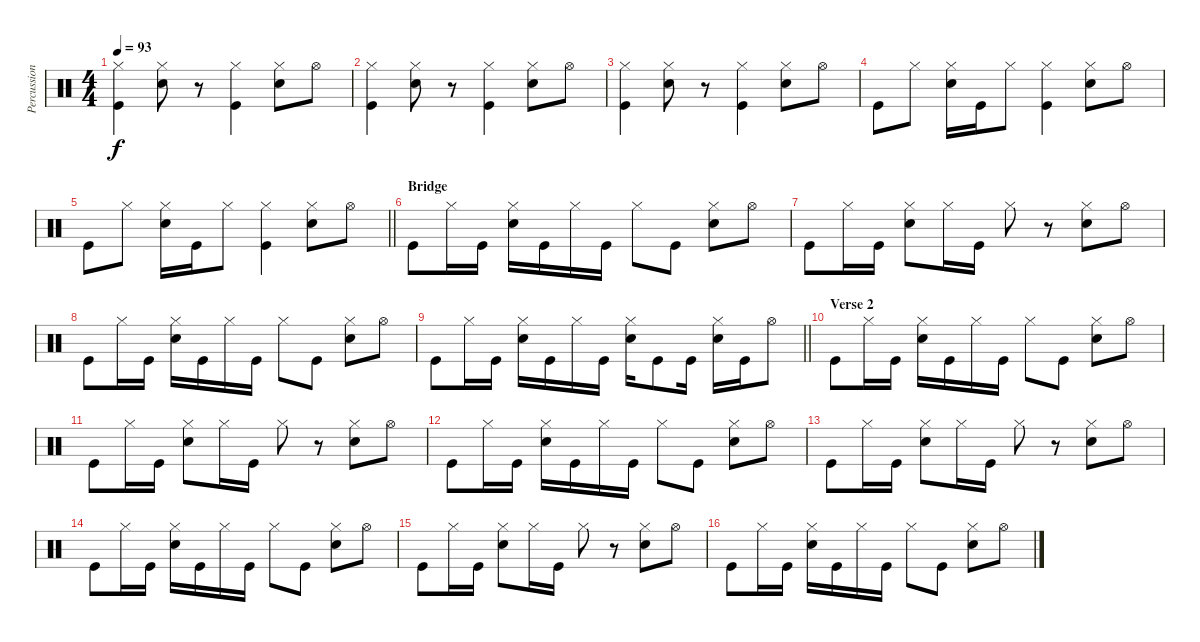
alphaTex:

\track ("Percussion" "Percussion") {instrument percussion}
\staff {score}
\articulation defaults
\ts (4 4)
\tempo 93
\clef neutral
\ks c
("Hi-Hat (closed)" "Kick (hit)").4{dy f} ("Hi-Hat (closed)" "Snare (hit) 2").8 r.8 ("Hi-Hat (closed)" "Kick (hit)").4 ("Hi-Hat (closed)" "Snare (hit) 2").8 "Hi-Hat (open)".8 |
("Hi-Hat (closed)" "Kick (hit)").4 ("Hi-Hat (closed)" "Snare (hit) 2").8 r.8 ("Hi-Hat (closed)" "Kick (hit)").4 ("Hi-Hat (closed)" "Snare (hit) 2").8 "Hi-Hat (open)".8 |
("Hi-Hat (closed)" "Kick (hit)").4 ("Hi-Hat (closed)" "Snare (hit) 2").8 r.8 ("Hi-Hat (closed)" "Kick (hit)").4 ("Hi-Hat (closed)" "Snare (hit) 2").8 "Hi-Hat (open)".8 |
"Kick (hit)".8 "Hi-Hat (closed)".8 ("Hi-Hat (closed)" "Snare (hit) 2").16 "Kick (hit)".16 "Hi-Hat (closed)".8 ("Hi-Hat (closed)" "Kick (hit)").4 ("Hi-Hat (closed)" "Snare (hit) 2").8 "Hi-Hat (open)".8 |
\barLineRight lightlight "Kick (hit)".8 "Hi-Hat (closed)".8
("Hi-Hat (closed)" "Snare (hit) 2").16 "Kick (hit)".16 "Hi-Hat (closed)".8 ("Hi-Hat (closed)" "Kick (hit)").4 ("Hi-Hat (closed)" "Snare (hit) 2").8 "Hi-Hat (open)".8 |
\section ("" "Bridge")
"Kick (hit)".8 "Hi-Hat (closed)".16 "Kick (hit)".16 ("Hi-Hat (closed)" "Snare (hit) 2").16 "Kick (hit)".16 "Hi-Hat (closed)".16 "Kick (hit)".16 "Hi-Hat (closed)".8 "Kick (hit)".8 ("Hi-Hat (closed)" "Snare (hit) 2").8 "Hi-Hat (open)".8 |
"Kick (hit)".8 "Hi-Hat (closed)".16 "Kick (hit)".16 ("Hi-Hat (closed)" "Snare (hit) 2").8 "Hi-Hat (closed)".16 "Kick (hit)".16 "Hi-Hat (closed)".8 r.8 ("Hi-Hat (closed)" "Snare (hit) 2").8 "Hi-Hat (open)".8 |
"Kick (hit)".8 "Hi-Hat (closed)".16 "Kick (hit)".16 ("Hi-Hat (closed)" "Snare (hit) 2").16 "Kick (hit)".16 "Hi-Hat (closed)".16 "Kick (hit)".16 "Hi-Hat (closed)".8 "Kick (hit)".8 ("Hi-Hat (closed)" "Snare (hit) 2").8 "Hi-Hat (open)".8 |
\barLineRight lightlight "Kick (hit)".8 "Hi-Hat (closed)".16 "Kick (hit)".16
("Hi-Hat (closed)" "Snare (hit) 2").16 "Kick (hit)".16 "Hi-Hat (closed)".16 "Kick (hit)".16 ("Hi-Hat (closed)" "Snare (hit) 2").16 "Kick (hit)".8 "Kick (hit)".16 ("Hi-Hat (closed)" "Snare (hit) 2").16 "Kick (hit)".16 "Hi-Hat (open)".8 |
\section ("" "Verse 2")
"Kick (hit)".8 "Hi-Hat (closed)".16 "Kick (hit)".16 ("Hi-Hat (closed)" "Snare (hit) 2").16 "Kick (hit)".16 "Hi-Hat (closed)".16 "Kick (hit)".16 "Hi-Hat (closed)".8 "Kick (hit)".8 ("Hi-Hat (closed)" "Snare (hit) 2").8 "Hi-Hat (open)".8 |
"Kick (hit)".8 "Hi-Hat (closed)".16 "Kick (hit)".16 ("Hi-Hat (closed)" "Snare (hit) 2").8 "Hi-Hat (closed)".16 "Kick (hit)".16 "Hi-Hat (closed)".8 r.8 ("Hi-Hat (closed)" "Snare (hit) 2").8 "Hi-Hat (open)".8 |
"Kick (hit)".8 "Hi-Hat (closed)".16 "Kick (hit)".16 ("Hi-Hat (closed)" "Snare (hit) 2").16 "Kick (hit)".16 "Hi-Hat (closed)".16 "Kick (hit)".16 "Hi-Hat (closed)".8 "Kick (hit)".8 ("Hi-Hat (closed)" "Snare (hit) 2").8 "Hi-Hat (open)".8 |
"Kick (hit)".8 "Hi-Hat (closed)".16 "Kick (hit)".16 ("Hi-Hat (closed)" "Snare (hit) 2").8 "Hi-Hat (closed)".16 "Kick (hit)".16 "Hi-Hat (closed)".8 r.8 ("Hi-Hat (closed)" "Snare (hit) 2").8 "Hi-Hat (open)".8 |
"Kick (hit)".8 "Hi-Hat (closed)".16 "Kick (hit)".16 ("Hi-Hat (closed)" "Snare (hit) 2").16 "Kick (hit)".16 "Hi-Hat (closed)".16 "Kick (hit)".16 "Hi-Hat (closed)".8 "Kick (hit)".8 ("Hi-Hat (closed)" "Snare (hit) 2").8 "Hi-Hat (open)".8 |
"Kick (hit)".8 "Hi-Hat (closed)".16 "Kick (hit)".16 ("Hi-Hat (closed)" "Snare (hit) 2").8 "Hi-Hat (closed)".16 "Kick (hit)".16 "Hi-Hat (closed)".8 r.8 ("Hi-Hat (closed)" "Snare (hit) 2").8 "Hi-Hat (open)".8 |
"Kick (hit)".8 "Hi-Hat (closed)".16 "Kick (hit)".16 ("Hi-Hat (closed)" "Snare (hit) 2").16 "Kick (hit)".16 "Hi-Hat (closed)".16 "Kick (hit)".16 "Hi-Hat (closed)".8 "Kick (hit)".8 ("Hi-Hat (closed)" "Snare (hit) 2").8 "Hi-Hat (open)".8
